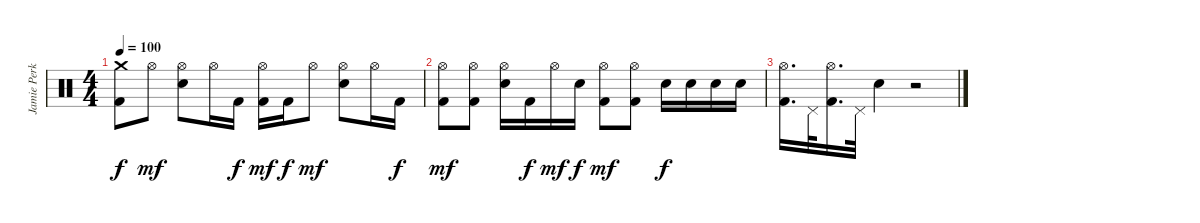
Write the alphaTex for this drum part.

\track ("Jamie Perkins" "Jamie Perk") {instrument percussion}
\staff {score}
\articulation defaults
\ts (4 4)
\tempo 100
\clef neutral
\ks c
("Crash medium (hit)" "Kick (hit) 2").8{dy f} "Hi-Hat (open)".8{dy mf} ("Hi-Hat (open)" "Snare (hit) 2").8 "Hi-Hat (open)".16 "Kick (hit) 2".16{dy f} ("Hi-Hat (open)" "Kick (hit) 2").16{dy mf} "Kick (hit) 2".16{dy f} "Hi-Hat (open)".8{dy mf} ("Hi-Hat (open)" "Snare (hit) 2").8 "Hi-Hat (open)".16 "Kick (hit) 2".16{dy f} |
("Hi-Hat (open)" "Kick (hit) 2").8{dy mf} ("Hi-Hat (open)" "Kick (hit) 2").8 ("Hi-Hat (open)" "Snare (hit) 2").16 "Kick (hit) 2".16{dy f} "Hi-Hat (open)".16{dy mf} "Snare (hit) 2".16{dy f} ("Hi-Hat (open)" "Kick (hit) 2").8{dy mf} ("Hi-Hat (open)" "Kick (hit) 2").8 "Snare (hit) 2".16{dy f} "Snare (hit) 2".16 "Snare (hit) 2".16 "Snare (hit) 2".16 |
("Hi-Hat (open)" "Kick (hit) 2").16{d} "Pedal Hi-Hat (hit)".32 ("Hi-Hat (open)" "Kick (hit) 2").16{d} "Pedal Hi-Hat (hit)".32 "Snare (hit)".4 r.2
